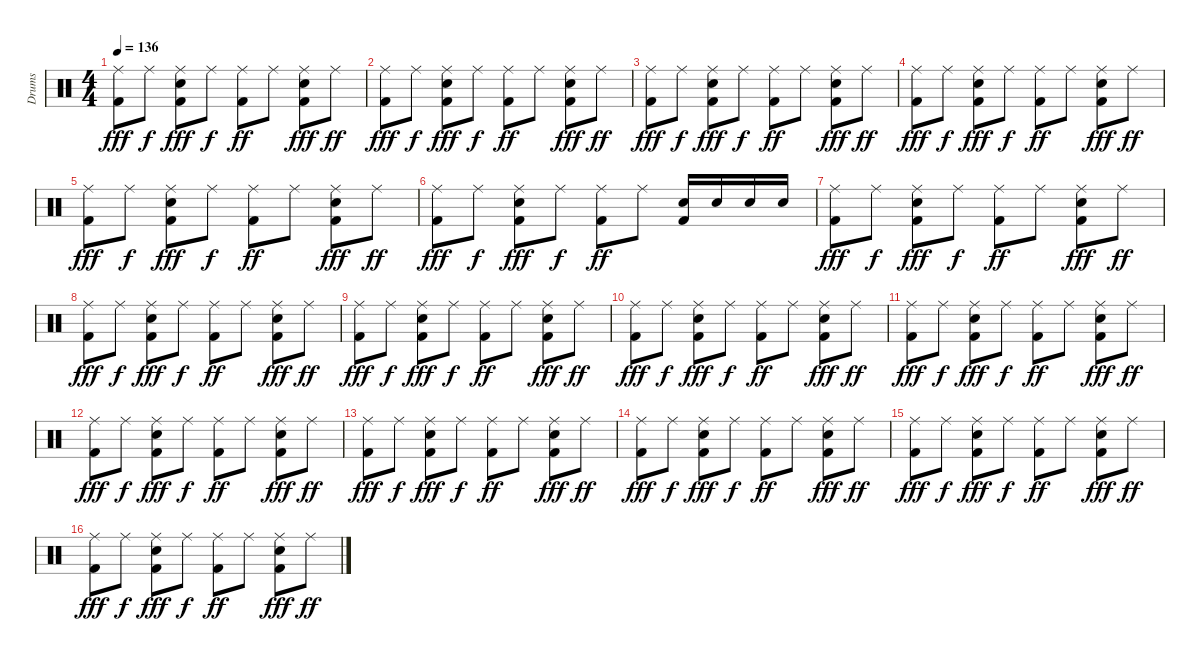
\track ("Drums" "Drums") {instrument percussion}
\staff {score}
\articulation defaults
\ts (4 4)
\tempo 136
\clef neutral
\ks c
("Kick (hit) 2" "Ride (middle)").8{dy fff} "Ride (middle)".8{dy f} ("Kick (hit) 2" "Electric Snare (hit)" "Ride (middle)").8{dy fff} "Ride (middle)".8{dy f} ("Kick (hit) 2" "Ride (middle)").8{dy ff} "Ride (middle)".8 ("Kick (hit) 2" "Electric Snare (hit)" "Ride (middle)").8{dy fff} "Ride (middle)".8{dy ff} |
("Kick (hit) 2" "Ride (middle)").8{dy fff} "Ride (middle)".8{dy f} ("Kick (hit) 2" "Electric Snare (hit)" "Ride (middle)").8{dy fff} "Ride (middle)".8{dy f} ("Kick (hit) 2" "Ride (middle)").8{dy ff} "Ride (middle)".8 ("Kick (hit) 2" "Electric Snare (hit)" "Ride (middle)").8{dy fff} "Ride (middle)".8{dy ff} |
("Kick (hit) 2" "Ride (middle)").8{dy fff} "Ride (middle)".8{dy f} ("Kick (hit) 2" "Electric Snare (hit)" "Ride (middle)").8{dy fff} "Ride (middle)".8{dy f} ("Kick (hit) 2" "Ride (middle)").8{dy ff} "Ride (middle)".8 ("Kick (hit) 2" "Electric Snare (hit)" "Ride (middle)").8{dy fff} "Ride (middle)".8{dy ff} |
("Kick (hit) 2" "Ride (middle)").8{dy fff} "Ride (middle)".8{dy f} ("Kick (hit) 2" "Electric Snare (hit)" "Ride (middle)").8{dy fff} "Ride (middle)".8{dy f} ("Kick (hit) 2" "Ride (middle)").8{dy ff} "Ride (middle)".8 ("Kick (hit) 2" "Electric Snare (hit)" "Ride (middle)").8{dy fff} "Ride (middle)".8{dy ff} |
("Kick (hit) 2" "Ride (middle)").8{dy fff} "Ride (middle)".8{dy f} ("Kick (hit) 2" "Electric Snare (hit)" "Ride (middle)").8{dy fff} "Ride (middle)".8{dy f} ("Kick (hit) 2" "Ride (middle)").8{dy ff} "Ride (middle)".8 ("Kick (hit) 2" "Electric Snare (hit)" "Ride (middle)").8{dy fff} "Ride (middle)".8{dy ff} |
("Kick (hit) 2" "Ride (middle)").8{dy fff} "Ride (middle)".8{dy f} ("Kick (hit) 2" "Electric Snare (hit)" "Ride (middle)").8{dy fff} "Ride (middle)".8{dy f} ("Kick (hit) 2" "Ride (middle)").8{dy ff} "Ride (middle)".8 ("Kick (hit) 2" "Electric Snare (hit)").16 "Electric Snare (hit)".16 "Electric Snare (hit)".16 "Electric Snare (hit)".16 |
("Kick (hit) 2" "Ride (middle)").8{dy fff} "Ride (middle)".8{dy f} ("Kick (hit) 2" "Electric Snare (hit)" "Ride (middle)").8{dy fff} "Ride (middle)".8{dy f} ("Kick (hit) 2" "Ride (middle)").8{dy ff} "Ride (middle)".8 ("Kick (hit) 2" "Electric Snare (hit)" "Ride (middle)").8{dy fff} "Ride (middle)".8{dy ff} |
("Kick (hit) 2" "Ride (middle)").8{dy fff} "Ride (middle)".8{dy f} ("Kick (hit) 2" "Electric Snare (hit)" "Ride (middle)").8{dy fff} "Ride (middle)".8{dy f} ("Kick (hit) 2" "Ride (middle)").8{dy ff} "Ride (middle)".8 ("Kick (hit) 2" "Electric Snare (hit)" "Ride (middle)").8{dy fff} "Ride (middle)".8{dy ff} |
("Kick (hit) 2" "Ride (middle)").8{dy fff} "Ride (middle)".8{dy f} ("Kick (hit) 2" "Electric Snare (hit)" "Ride (middle)").8{dy fff} "Ride (middle)".8{dy f} ("Kick (hit) 2" "Ride (middle)").8{dy ff} "Ride (middle)".8 ("Kick (hit) 2" "Electric Snare (hit)" "Ride (middle)").8{dy fff} "Ride (middle)".8{dy ff} |
("Kick (hit) 2" "Ride (middle)").8{dy fff} "Ride (middle)".8{dy f} ("Kick (hit) 2" "Electric Snare (hit)" "Ride (middle)").8{dy fff} "Ride (middle)".8{dy f} ("Kick (hit) 2" "Ride (middle)").8{dy ff} "Ride (middle)".8 ("Kick (hit) 2" "Electric Snare (hit)" "Ride (middle)").8{dy fff} "Ride (middle)".8{dy ff} |
("Kick (hit) 2" "Ride (middle)").8{dy fff} "Ride (middle)".8{dy f} ("Kick (hit) 2" "Electric Snare (hit)" "Ride (middle)").8{dy fff} "Ride (middle)".8{dy f} ("Kick (hit) 2" "Ride (middle)").8{dy ff} "Ride (middle)".8 ("Kick (hit) 2" "Electric Snare (hit)" "Ride (middle)").8{dy fff} "Ride (middle)".8{dy ff} |
("Kick (hit) 2" "Ride (middle)").8{dy fff} "Ride (middle)".8{dy f} ("Kick (hit) 2" "Electric Snare (hit)" "Ride (middle)").8{dy fff} "Ride (middle)".8{dy f} ("Kick (hit) 2" "Ride (middle)").8{dy ff} "Ride (middle)".8 ("Kick (hit) 2" "Electric Snare (hit)" "Ride (middle)").8{dy fff} "Ride (middle)".8{dy ff} |
("Kick (hit) 2" "Ride (middle)").8{dy fff} "Ride (middle)".8{dy f} ("Kick (hit) 2" "Electric Snare (hit)" "Ride (middle)").8{dy fff} "Ride (middle)".8{dy f} ("Kick (hit) 2" "Ride (middle)").8{dy ff} "Ride (middle)".8 ("Kick (hit) 2" "Electric Snare (hit)" "Ride (middle)").8{dy fff} "Ride (middle)".8{dy ff} |
("Kick (hit) 2" "Ride (middle)").8{dy fff} "Ride (middle)".8{dy f} ("Kick (hit) 2" "Electric Snare (hit)" "Ride (middle)").8{dy fff} "Ride (middle)".8{dy f} ("Kick (hit) 2" "Ride (middle)").8{dy ff} "Ride (middle)".8 ("Kick (hit) 2" "Electric Snare (hit)" "Ride (middle)").8{dy fff} "Ride (middle)".8{dy ff} |
("Kick (hit) 2" "Ride (middle)").8{dy fff} "Ride (middle)".8{dy f} ("Kick (hit) 2" "Electric Snare (hit)" "Ride (middle)").8{dy fff} "Ride (middle)".8{dy f} ("Kick (hit) 2" "Ride (middle)").8{dy ff} "Ride (middle)".8 ("Kick (hit) 2" "Electric Snare (hit)" "Ride (middle)").8{dy fff} "Ride (middle)".8{dy ff} |
("Kick (hit) 2" "Ride (middle)").8{dy fff} "Ride (middle)".8{dy f} ("Kick (hit) 2" "Electric Snare (hit)" "Ride (middle)").8{dy fff} "Ride (middle)".8{dy f} ("Kick (hit) 2" "Ride (middle)").8{dy ff} "Ride (middle)".8 ("Kick (hit) 2" "Electric Snare (hit)" "Ride (middle)").8{dy fff} "Ride (middle)".8{dy ff}
